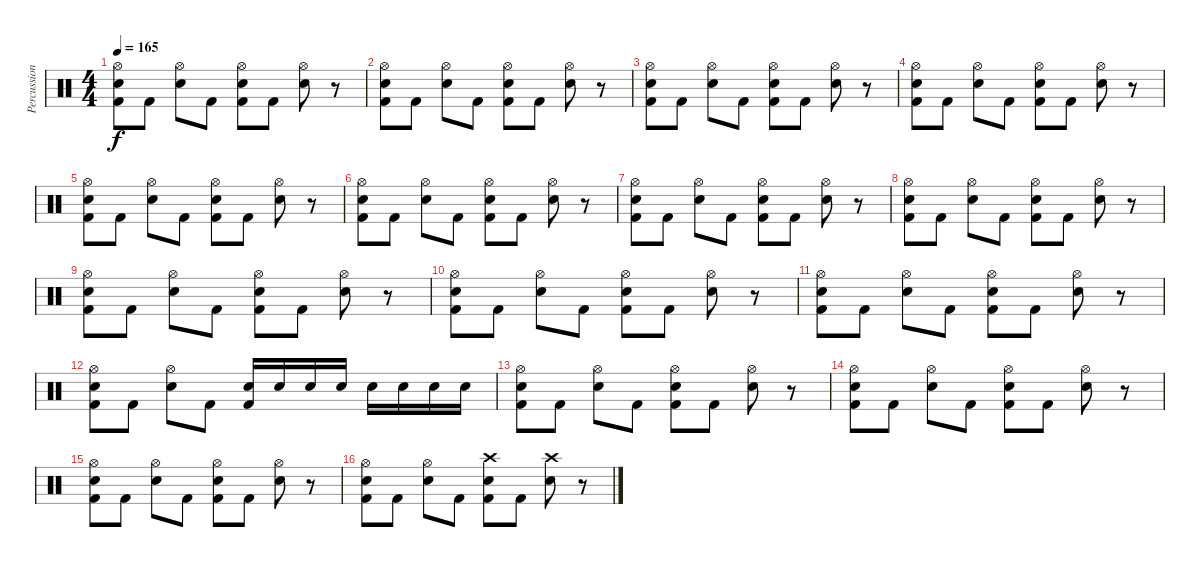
\track ("Percussion" "Percussion") {instrument percussion}
\staff {score}
\articulation defaults
\ts (4 4)
\tempo 165
\clef neutral
\ks c
("Kick (hit) 2" "Electric Snare (hit)" "Hi-Hat (open)").8{dy f} "Kick (hit) 2".8 ("Electric Snare (hit)" "Hi-Hat (open)").8 "Kick (hit) 2".8 ("Kick (hit) 2" "Electric Snare (hit)" "Hi-Hat (open)").8 "Kick (hit) 2".8 ("Electric Snare (hit)" "Hi-Hat (open)").8 r.8 |
("Kick (hit) 2" "Electric Snare (hit)" "Hi-Hat (open)").8 "Kick (hit) 2".8 ("Electric Snare (hit)" "Hi-Hat (open)").8 "Kick (hit) 2".8 ("Kick (hit) 2" "Electric Snare (hit)" "Hi-Hat (open)").8 "Kick (hit) 2".8 ("Electric Snare (hit)" "Hi-Hat (open)").8 r.8 |
("Kick (hit) 2" "Electric Snare (hit)" "Hi-Hat (open)").8 "Kick (hit) 2".8 ("Electric Snare (hit)" "Hi-Hat (open)").8 "Kick (hit) 2".8 ("Kick (hit) 2" "Electric Snare (hit)" "Hi-Hat (open)").8 "Kick (hit) 2".8 ("Electric Snare (hit)" "Hi-Hat (open)").8 r.8 |
("Kick (hit) 2" "Electric Snare (hit)" "Hi-Hat (open)").8 "Kick (hit) 2".8 ("Electric Snare (hit)" "Hi-Hat (open)").8 "Kick (hit) 2".8 ("Kick (hit) 2" "Electric Snare (hit)" "Hi-Hat (open)").8 "Kick (hit) 2".8 ("Electric Snare (hit)" "Hi-Hat (open)").8 r.8 |
("Kick (hit) 2" "Electric Snare (hit)" "Hi-Hat (open)").8 "Kick (hit) 2".8 ("Electric Snare (hit)" "Hi-Hat (open)").8 "Kick (hit) 2".8 ("Kick (hit) 2" "Electric Snare (hit)" "Hi-Hat (open)").8 "Kick (hit) 2".8 ("Electric Snare (hit)" "Hi-Hat (open)").8 r.8 |
("Kick (hit) 2" "Electric Snare (hit)" "Hi-Hat (open)").8 "Kick (hit) 2".8 ("Electric Snare (hit)" "Hi-Hat (open)").8 "Kick (hit) 2".8 ("Kick (hit) 2" "Electric Snare (hit)" "Hi-Hat (open)").8 "Kick (hit) 2".8 ("Electric Snare (hit)" "Hi-Hat (open)").8 r.8 |
("Kick (hit) 2" "Electric Snare (hit)" "Hi-Hat (open)").8 "Kick (hit) 2".8 ("Electric Snare (hit)" "Hi-Hat (open)").8 "Kick (hit) 2".8 ("Kick (hit) 2" "Electric Snare (hit)" "Hi-Hat (open)").8 "Kick (hit) 2".8 ("Electric Snare (hit)" "Hi-Hat (open)").8 r.8 |
("Kick (hit) 2" "Electric Snare (hit)" "Hi-Hat (open)").8 "Kick (hit) 2".8 ("Electric Snare (hit)" "Hi-Hat (open)").8 "Kick (hit) 2".8 ("Kick (hit) 2" "Electric Snare (hit)" "Hi-Hat (open)").8 "Kick (hit) 2".8 ("Electric Snare (hit)" "Hi-Hat (open)").8 r.8 |
("Kick (hit) 2" "Electric Snare (hit)" "Hi-Hat (open)").8 "Kick (hit) 2".8 ("Electric Snare (hit)" "Hi-Hat (open)").8 "Kick (hit) 2".8 ("Kick (hit) 2" "Electric Snare (hit)" "Hi-Hat (open)").8 "Kick (hit) 2".8 ("Electric Snare (hit)" "Hi-Hat (open)").8 r.8 |
("Kick (hit) 2" "Electric Snare (hit)" "Hi-Hat (open)").8 "Kick (hit) 2".8 ("Electric Snare (hit)" "Hi-Hat (open)").8 "Kick (hit) 2".8 ("Kick (hit) 2" "Electric Snare (hit)" "Hi-Hat (open)").8 "Kick (hit) 2".8 ("Electric Snare (hit)" "Hi-Hat (open)").8 r.8 |
("Kick (hit) 2" "Electric Snare (hit)" "Hi-Hat (open)").8 "Kick (hit) 2".8 ("Electric Snare (hit)" "Hi-Hat (open)").8 "Kick (hit) 2".8 ("Kick (hit) 2" "Electric Snare (hit)" "Hi-Hat (open)").8 "Kick (hit) 2".8 ("Electric Snare (hit)" "Hi-Hat (open)").8 r.8 |
("Hi-Hat (open)" "Electric Snare (hit)" "Kick (hit) 2").8 "Kick (hit) 2".8 ("Hi-Hat (open)" "Electric Snare (hit)").8 "Kick (hit) 2".8 ("Electric Snare (hit)" "Kick (hit) 2").16 "Electric Snare (hit)".16 "Electric Snare (hit)".16 "Electric Snare (hit)".16 "Electric Snare (hit)".16 "Electric Snare (hit)".16 "Electric Snare (hit)".16 "Electric Snare (hit)".16 |
("Kick (hit) 2" "Electric Snare (hit)" "Hi-Hat (open)").8 "Kick (hit) 2".8 ("Electric Snare (hit)" "Hi-Hat (open)").8 "Kick (hit) 2".8 ("Kick (hit) 2" "Electric Snare (hit)" "Hi-Hat (open)").8 "Kick (hit) 2".8 ("Electric Snare (hit)" "Hi-Hat (open)").8 r.8 |
("Kick (hit) 2" "Electric Snare (hit)" "Hi-Hat (open)").8 "Kick (hit) 2".8 ("Electric Snare (hit)" "Hi-Hat (open)").8 "Kick (hit) 2".8 ("Kick (hit) 2" "Electric Snare (hit)" "Hi-Hat (open)").8 "Kick (hit) 2".8 ("Electric Snare (hit)" "Hi-Hat (open)").8 r.8 |
("Kick (hit) 2" "Electric Snare (hit)" "Hi-Hat (open)").8 "Kick (hit) 2".8 ("Electric Snare (hit)" "Hi-Hat (open)").8 "Kick (hit) 2".8 ("Kick (hit) 2" "Electric Snare (hit)" "Hi-Hat (open)").8 "Kick (hit) 2".8 ("Electric Snare (hit)" "Hi-Hat (open)").8 r.8 |
("Kick (hit) 2" "Electric Snare (hit)" "Hi-Hat (open)").8 "Kick (hit) 2".8 ("Electric Snare (hit)" "Hi-Hat (open)").8 "Kick (hit) 2".8 ("Kick (hit) 2" "Electric Snare (hit)" "Crash high (hit)").8 "Kick (hit) 2".8 ("Electric Snare (hit)" "Crash high (hit)").8 r.8
